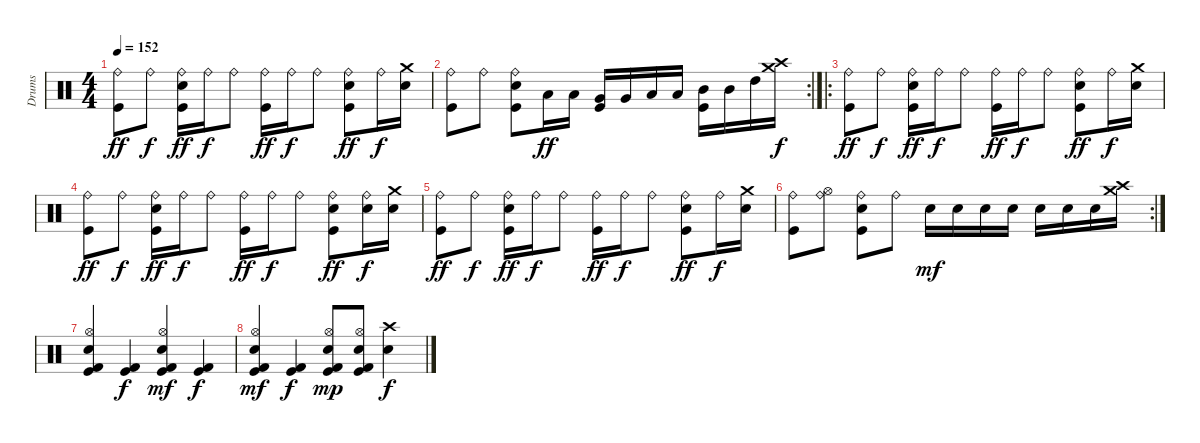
\track ("Drums" "Drums") {instrument percussion}
\staff {score}
\articulation defaults
\ts (4 4)
\tempo 152
\clef neutral
\ks c
("Ride (bell)" "Kick (hit)").8{dy ff} "Ride (bell)".8{dy f} ("Ride (bell)" "Electric Snare (hit)" "Kick (hit)").16{dy ff} "Ride (bell)".16{dy f} "Ride (bell)".8 ("Ride (bell)" "Kick (hit)").16{dy ff} "Ride (bell)".16{dy f} "Ride (bell)".8 ("Ride (bell)" "Electric Snare (hit)" "Kick (hit)").8{dy ff} "Ride (bell)".16{dy f} ("Crash medium (hit)" "Electric Snare (hit)").16 |
\rc 2
("Ride (bell)" "Kick (hit)").8 "Ride (bell)".8 ("Ride (bell)" "Electric Snare (hit)" "Kick (hit)").8 "Low Floor Tom (hit)".16{dy ff} "Low Floor Tom (hit)".16 ("Very Low Tom (hit)" "Kick (hit)").16 "Very Low Tom (hit)".16 "Low Tom (hit)".16 "Low Tom (hit)".16 ("Mid Tom (hit)" "Kick (hit)").16 "Mid Tom (hit)".16 "High Tom (hit)".16 ("Crash high (hit)" "Crash medium (hit)").16{dy f} |
\ro
("Ride (bell)" "Kick (hit)").8{dy ff} "Ride (bell)".8{dy f} ("Ride (bell)" "Electric Snare (hit)" "Kick (hit)").16{dy ff} "Ride (bell)".16{dy f} "Ride (bell)".8 ("Ride (bell)" "Kick (hit)").16{dy ff} "Ride (bell)".16{dy f} "Ride (bell)".8 ("Ride (bell)" "Electric Snare (hit)" "Kick (hit)").8{dy ff} "Ride (bell)".16{dy f} ("Crash medium (hit)" "Electric Snare (hit)").16 |
("Ride (bell)" "Kick (hit)").8{dy ff} "Ride (bell)".8{dy f} ("Ride (bell)" "Electric Snare (hit)" "Kick (hit)").16{dy ff} "Ride (bell)".16{dy f} "Ride (bell)".8 ("Ride (bell)" "Kick (hit)").16{dy ff} "Ride (bell)".16{dy f} "Ride (bell)".8 ("Ride (bell)" "Electric Snare (hit)" "Kick (hit)").8{dy ff} ("Ride (bell)" "Electric Snare (hit)").16{dy f} ("Crash medium (hit)" "Electric Snare (hit)").16 |
("Ride (bell)" "Kick (hit)").8{dy ff} "Ride (bell)".8{dy f} ("Ride (bell)" "Electric Snare (hit)" "Kick (hit)").16{dy ff} "Ride (bell)".16{dy f} "Ride (bell)".8 ("Ride (bell)" "Kick (hit)").16{dy ff} "Ride (bell)".16{dy f} "Ride (bell)".8 ("Ride (bell)" "Electric Snare (hit)" "Kick (hit)").8{dy ff} "Ride (bell)".16{dy f} ("Crash medium (hit)" "Electric Snare (hit)").16 |
\rc 2
("Ride (bell)" "Kick (hit)").8 ("Ride (bell)" "Hi-Hat (open)").8 ("Ride (bell)" "Electric Snare (hit)" "Kick (hit)").8 "Ride (bell)".8 "Electric Snare (hit)".16{dy mf} "Electric Snare (hit)".16 "Electric Snare (hit)".16 "Electric Snare (hit)".16 "Electric Snare (hit)".16 "Electric Snare (hit)".16 "Electric Snare (hit)".16 ("Crash high (hit)" "Crash medium (hit)").16 |
("Kick (hit)" "Kick (hit) 2" "Electric Snare (hit)" "Hi-Hat (open)").4 ("Kick (hit)" "Kick (hit) 2").4{dy f} ("Kick (hit)" "Kick (hit) 2" "Electric Snare (hit)" "Hi-Hat (open)").4{dy mf} ("Kick (hit)" "Kick (hit) 2").4{dy f} |
("Kick (hit)" "Kick (hit) 2" "Electric Snare (hit)" "Hi-Hat (open)").4{dy mf} ("Kick (hit)" "Kick (hit) 2").4{dy f} ("Kick (hit)" "Kick (hit) 2" "Electric Snare (hit)" "Hi-Hat (open)").8{dy mp} ("Kick (hit)" "Kick (hit) 2" "Electric Snare (hit)" "Hi-Hat (open)").8 ("Electric Snare (hit)" "Crash high (hit)").4{dy f}
